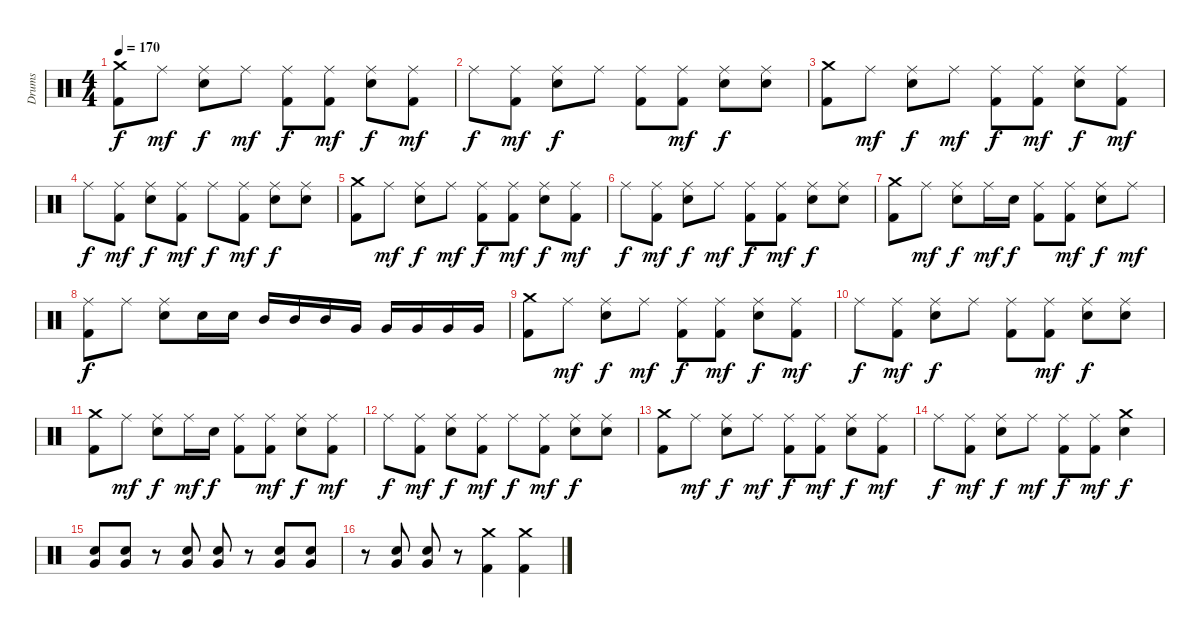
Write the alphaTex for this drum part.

\track ("Drums" "Drums") {instrument percussion}
\staff {score}
\articulation defaults
\ts (4 4)
\tempo 170
\clef neutral
\ks c
("Crash medium (hit)" "Kick (hit) 2").8{dy f} "Ride (middle)".8{dy mf} ("Ride (middle)" "Electric Snare (hit)").8{dy f} "Ride (middle)".8{dy mf} ("Ride (middle)" "Kick (hit) 2").8{dy f} ("Ride (middle)" "Kick (hit) 2").8{dy mf} ("Ride (middle)" "Electric Snare (hit)").8{dy f} ("Ride (middle)" "Kick (hit) 2").8{dy mf} |
"Ride (middle)".8{dy f} ("Ride (middle)" "Kick (hit) 2").8{dy mf} ("Ride (middle)" "Electric Snare (hit)").8{dy f} "Ride (middle)".8 ("Ride (middle)" "Kick (hit) 2").8 ("Ride (middle)" "Kick (hit) 2").8{dy mf} ("Ride (middle)" "Electric Snare (hit)").8{dy f} ("Ride (middle)" "Electric Snare (hit)").8 |
("Crash medium (hit)" "Kick (hit) 2").8 "Ride (middle)".8{dy mf} ("Ride (middle)" "Electric Snare (hit)").8{dy f} "Ride (middle)".8{dy mf} ("Ride (middle)" "Kick (hit) 2").8{dy f} ("Ride (middle)" "Kick (hit) 2").8{dy mf} ("Ride (middle)" "Electric Snare (hit)").8{dy f} ("Ride (middle)" "Kick (hit) 2").8{dy mf} |
"Ride (middle)".8{dy f} ("Ride (middle)" "Kick (hit) 2").8{dy mf} ("Ride (middle)" "Electric Snare (hit)").8{dy f} ("Ride (middle)" "Kick (hit) 2").8{dy mf} "Ride (middle)".8{dy f} ("Ride (middle)" "Kick (hit) 2").8{dy mf} ("Ride (middle)" "Electric Snare (hit)").8{dy f} ("Ride (middle)" "Electric Snare (hit)").8 |
("Crash medium (hit)" "Kick (hit) 2").8 "Ride (middle)".8{dy mf} ("Ride (middle)" "Electric Snare (hit)").8{dy f} "Ride (middle)".8{dy mf} ("Ride (middle)" "Kick (hit) 2").8{dy f} ("Ride (middle)" "Kick (hit) 2").8{dy mf} ("Ride (middle)" "Electric Snare (hit)").8{dy f} ("Ride (middle)" "Kick (hit) 2").8{dy mf} |
"Ride (middle)".8{dy f} ("Ride (middle)" "Kick (hit) 2").8{dy mf} ("Ride (middle)" "Electric Snare (hit)").8{dy f} "Ride (middle)".8{dy mf} ("Ride (middle)" "Kick (hit) 2").8{dy f} ("Ride (middle)" "Kick (hit) 2").8{dy mf} ("Ride (middle)" "Electric Snare (hit)").8{dy f} ("Ride (middle)" "Electric Snare (hit)").8 |
("Crash medium (hit)" "Kick (hit) 2").8 "Ride (middle)".8{dy mf} ("Ride (middle)" "Electric Snare (hit)").8{dy f} "Ride (middle)".16{dy mf} "Electric Snare (hit)".16{dy f} ("Ride (middle)" "Kick (hit) 2").8 ("Ride (middle)" "Kick (hit) 2").8{dy mf} ("Ride (middle)" "Electric Snare (hit)").8{dy f} "Ride (middle)".8{dy mf} |
("Ride (middle)" "Kick (hit) 2").8{dy f} "Ride (middle)".8 ("Ride (middle)" "Electric Snare (hit)").8 "Electric Snare (hit)".16 "Electric Snare (hit)".16 "Mid Tom (hit)".16 "Mid Tom (hit)".16 "Mid Tom (hit)".16 "Very Low Tom (hit)".16 "Very Low Tom (hit)".16 "Very Low Tom (hit)".16 "Very Low Tom (hit)".16 "Very Low Tom (hit)".16 |
("Crash medium (hit)" "Kick (hit) 2").8 "Ride (middle)".8{dy mf} ("Ride (middle)" "Electric Snare (hit)").8{dy f} "Ride (middle)".8{dy mf} ("Ride (middle)" "Kick (hit) 2").8{dy f} ("Ride (middle)" "Kick (hit) 2").8{dy mf} ("Ride (middle)" "Electric Snare (hit)").8{dy f} ("Ride (middle)" "Kick (hit) 2").8{dy mf} |
"Ride (middle)".8{dy f} ("Ride (middle)" "Kick (hit) 2").8{dy mf} ("Ride (middle)" "Electric Snare (hit)").8{dy f} "Ride (middle)".8 ("Ride (middle)" "Kick (hit) 2").8 ("Ride (middle)" "Kick (hit) 2").8{dy mf} ("Ride (middle)" "Electric Snare (hit)").8{dy f} ("Ride (middle)" "Electric Snare (hit)").8 |
("Crash medium (hit)" "Kick (hit) 2").8 "Ride (middle)".8{dy mf} ("Ride (middle)" "Electric Snare (hit)").8{dy f} "Ride (middle)".16{dy mf} "Electric Snare (hit)".16{dy f} ("Ride (middle)" "Kick (hit) 2").8 ("Ride (middle)" "Kick (hit) 2").8{dy mf} ("Ride (middle)" "Electric Snare (hit)").8{dy f} ("Ride (middle)" "Kick (hit) 2").8{dy mf} |
"Ride (middle)".8{dy f} ("Ride (middle)" "Kick (hit) 2").8{dy mf} ("Ride (middle)" "Electric Snare (hit)").8{dy f} ("Ride (middle)" "Kick (hit) 2").8{dy mf} "Ride (middle)".8{dy f} ("Ride (middle)" "Kick (hit) 2").8{dy mf} ("Ride (middle)" "Electric Snare (hit)").8{dy f} ("Ride (middle)" "Electric Snare (hit)").8 |
("Crash medium (hit)" "Kick (hit) 2").8 "Ride (middle)".8{dy mf} ("Ride (middle)" "Electric Snare (hit)").8{dy f} "Ride (middle)".8{dy mf} ("Ride (middle)" "Kick (hit) 2").8{dy f} ("Ride (middle)" "Kick (hit) 2").8{dy mf} ("Ride (middle)" "Electric Snare (hit)").8{dy f} ("Ride (middle)" "Kick (hit) 2").8{dy mf} |
"Ride (middle)".8{dy f} ("Ride (middle)" "Kick (hit) 2").8{dy mf} ("Ride (middle)" "Electric Snare (hit)").8{dy f} "Ride (middle)".8{dy mf} ("Ride (middle)" "Kick (hit) 2").8{dy f} ("Ride (middle)" "Kick (hit) 2").8{dy mf} ("Crash medium (hit)" "Electric Snare (hit)").4{dy f} |
("Very Low Tom (hit)" "Electric Snare (hit)").8 ("Very Low Tom (hit)" "Electric Snare (hit)").8 r.8 ("Very Low Tom (hit)" "Electric Snare (hit)").8 ("Very Low Tom (hit)" "Electric Snare (hit)").8 r.8 ("Very Low Tom (hit)" "Electric Snare (hit)").8 ("Very Low Tom (hit)" "Electric Snare (hit)").8 |
r.8 ("Very Low Tom (hit)" "Electric Snare (hit)").8 ("Very Low Tom (hit)" "Electric Snare (hit)").8 r.8 ("Crash medium (hit)" "Kick (hit) 2").4 ("Crash medium (hit)" "Kick (hit) 2").4
